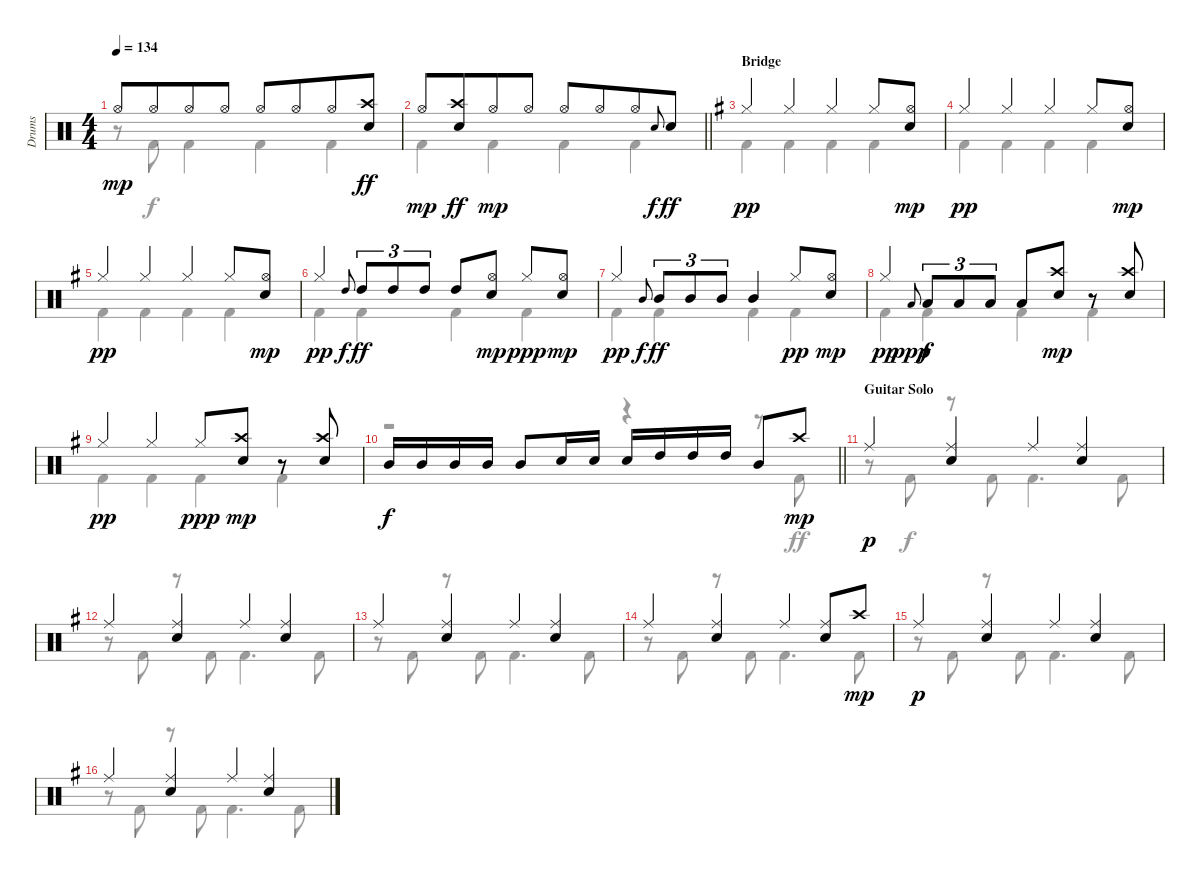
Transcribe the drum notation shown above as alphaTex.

\track ("Drums" "Drums") {instrument percussion}
\staff {score}
\articulation defaults
\voice
\ts (4 4)
\tempo 134
\clef neutral
\ks c "Hi-Hat (open)".8{dy mp} "Hi-Hat (open)".8{beam merge} "Hi-Hat (open)".8 "Hi-Hat (open)".8 "Hi-Hat (open)".8 "Hi-Hat (open)".8{beam merge} "Hi-Hat (open)".8
("Crash high (hit)" "Electric Snare (hit)").8{dy ff} |
\barLineRight lightlight "Hi-Hat (open)".8{dy mp}
("Crash high (hit)" "Electric Snare (hit)").8{dy ff beam merge} "Hi-Hat (open)".8{dy mp} "Hi-Hat (open)".8 "Hi-Hat (open)".8 "Hi-Hat (open)".8{beam merge} "Hi-Hat (open)".8 "Electric Snare (hit)".8{gr onbeat dy f} "Electric Snare (hit)".8{dy ff} |
\section ("" "Bridge")
\ks g "Hi-Hat (closed)".4{dy pp} "Hi-Hat (closed)".4 "Hi-Hat (closed)".4 "Hi-Hat (closed)".8
("Electric Snare (hit)" "Hi-Hat (open)").8{dy mp} |
"Hi-Hat (closed)".4{dy pp} "Hi-Hat (closed)".4 "Hi-Hat (closed)".4 "Hi-Hat (closed)".8 ("Electric Snare (hit)" "Hi-Hat (open)").8{dy mp} |
"Hi-Hat (closed)".4{dy pp} "Hi-Hat (closed)".4 "Hi-Hat (closed)".4 "Hi-Hat (closed)".8 ("Electric Snare (hit)" "Hi-Hat (open)").8{dy mp} |
"Hi-Hat (closed)".4{dy pp} "High Tom (hit)".8{gr onbeat dy f} "High Tom (hit)".8{tu (3 2) dy ff} "High Tom (hit)".8{tu (3 2)} "High Tom (hit)".8{tu (3 2)} "High Tom (hit)".8 ("Electric Snare (hit)" "Hi-Hat (open)").8{dy mp} "Hi-Hat (closed)".8{dy ppp} ("Electric Snare (hit)" "Hi-Hat (open)").8{dy mp} |
"Hi-Hat (closed)".4{dy pp} "Mid Tom (hit)".8{gr onbeat dy f} "Mid Tom (hit)".8{tu (3 2) dy ff} "Mid Tom (hit)".8{tu (3 2)} "Mid Tom (hit)".8{tu (3 2)} "Mid Tom (hit)".4 "Hi-Hat (closed)".8{dy pp} ("Electric Snare (hit)" "Hi-Hat (open)").8{dy mp} |
"Hi-Hat (closed)".4{dy pp} "Low Tom (hit)".8{gr onbeat dy ppp} "Low Tom (hit)".8{tu (3 2) dy f} "Low Tom (hit)".8{tu (3 2)} "Low Tom (hit)".8{tu (3 2)} "Low Tom (hit)".8 ("Electric Snare (hit)" "Crash high (hit)").8{dy mp} r.8 ("Electric Snare (hit)" "Crash high (hit)").8 |
"Hi-Hat (closed)".4{dy pp} "Hi-Hat (closed)".4 "Hi-Hat (closed)".8{dy ppp} ("Electric Snare (hit)" "Crash high (hit)").8{dy mp} r.8 ("Electric Snare (hit)" "Crash high (hit)").8 |
\barLineRight lightlight "Mid Tom (hit)".16{dy f} "Mid Tom (hit)".16 "Mid Tom (hit)".16 "Mid Tom (hit)".16 "Mid Tom (hit)".8 "Electric Snare (hit)".16 "Electric Snare (hit)".16 "Electric Snare (hit)".16 "High Tom (hit)".16 "High Tom (hit)".16 "High Tom (hit)".16 "Mid Tom (hit)".8 "Crash high (hit)".8{dy mp}
|
\section ("" "Guitar Solo")
"Ride (middle)".4{dy p} ("Ride (middle)" "Electric Snare (hit)").4 "Ride (middle)".4 ("Ride (middle)" "Electric Snare (hit)").4 |
"Ride (middle)".4 ("Ride (middle)" "Electric Snare (hit)").4 "Ride (middle)".4 ("Ride (middle)" "Electric Snare (hit)").4 |
"Ride (middle)".4 ("Ride (middle)" "Electric Snare (hit)").4 "Ride (middle)".4 ("Ride (middle)" "Electric Snare (hit)").4 |
"Ride (middle)".4 ("Ride (middle)" "Electric Snare (hit)").4 "Ride (middle)".4 ("Ride (middle)" "Electric Snare (hit)").8 "Crash high (hit)".8{dy mp} |
"Ride (middle)".4{dy p} ("Ride (middle)" "Electric Snare (hit)").4 "Ride (middle)".4 ("Ride (middle)" "Electric Snare (hit)").4 |
"Ride (middle)".4 ("Ride (middle)" "Electric Snare (hit)").4 "Ride (middle)".4 ("Ride (middle)" "Electric Snare (hit)").4
\voice
\clef neutral
\ottava regular
\simile none
\ks c
r.8{dy f} "Kick (hit) 2".8 "Kick (hit) 2".4 "Kick (hit) 2".4 "Kick (hit) 2".4 |
\barLineRight lightlight "Kick (hit) 2".4 "Kick (hit) 2".4 "Kick (hit) 2".4 "Kick (hit) 2".4
|
\ks g "Kick (hit) 2".4 "Kick (hit) 2".4 "Kick (hit) 2".4 "Kick (hit) 2".4
|
"Kick (hit) 2".4 "Kick (hit) 2".4 "Kick (hit) 2".4 "Kick (hit) 2".4 |
"Kick (hit) 2".4 "Kick (hit) 2".4 "Kick (hit) 2".4 "Kick (hit) 2".4 |
"Kick (hit) 2".4 "Kick (hit) 2".4 "Kick (hit) 2".4 "Kick (hit) 2".4 |
"Kick (hit) 2".4 "Kick (hit) 2".4 "Kick (hit) 2".4 "Kick (hit) 2".4 |
"Kick (hit) 2".4 "Kick (hit) 2".4 "Kick (hit) 2".4 "Kick (hit) 2".4 |
"Kick (hit) 2".4 "Kick (hit) 2".4 "Kick (hit) 2".4 "Kick (hit) 2".4 |
\barLineRight lightlight
r.2 r.4 r.8 "Kick (hit) 2".8{dy ff} |
r.8 "Kick (hit) 2".8{dy f} r.8 "Kick (hit) 2".8 "Kick (hit) 2".4{d} "Kick (hit) 2".8 |
r.8 "Kick (hit) 2".8 r.8 "Kick (hit) 2".8 "Kick (hit) 2".4{d} "Kick (hit) 2".8 |
r.8 "Kick (hit) 2".8 r.8 "Kick (hit) 2".8 "Kick (hit) 2".4{d} "Kick (hit) 2".8 |
r.8 "Kick (hit) 2".8 r.8 "Kick (hit) 2".8 "Kick (hit) 2".4{d} "Kick (hit) 2".8 |
r.8 "Kick (hit) 2".8 r.8 "Kick (hit) 2".8 "Kick (hit) 2".4{d} "Kick (hit) 2".8 |
r.8 "Kick (hit) 2".8 r.8 "Kick (hit) 2".8 "Kick (hit) 2".4{d} "Kick (hit) 2".8
